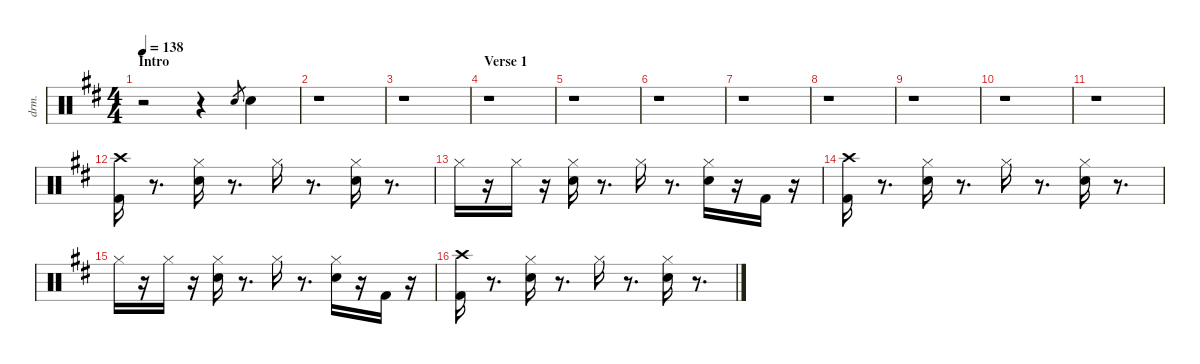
\hideDynamics
\bracketExtendMode groupsimilarinstruments
\otherSystemsTrackNameOrientation horizontal
\track ("Drumkit" "drm.") {instrument percussion}
\staff {score}
\articulation defaults
\ts (4 4)
\section ("" "Intro")
\tempo 138
\clef neutral
\ks d
r.2{dy f} r.4 "Snare (hit) 2"{acc forcenatural}.8{gr} "Snare (hit) 2"{acc forcenatural}.4 |
r.1 |
r.1 |
\section ("" "Verse 1")
r.1 |
r.1 |
r.1 |
r.1 |
r.1 |
r.1 |
r.1 |
r.1 |
("Kick (hit) 2"{acc forcenatural} "Crash high (hit)"{acc #}).16 r.8{d} ("Snare (hit) 2"{acc forcenatural} "Hi-Hat (closed)"{acc #}).16 r.8{d} "Hi-Hat (closed)"{acc #}.16{dy mp} r.8{d} ("Snare (hit) 2"{acc forcenatural} "Hi-Hat (closed)"{acc #}).16{dy f} r.8{d} |
"Hi-Hat (closed)"{acc #}.16{dy p} r.16 "Hi-Hat (closed)"{acc #}.16{dy pp} r.16 ("Snare (hit) 2"{acc forcenatural} "Hi-Hat (closed)"{acc #}).16{dy f} r.8{d} "Hi-Hat (closed)"{acc #}.16{dy pp} r.8{d} ("Snare (hit) 2"{acc forcenatural} "Hi-Hat (closed)"{acc #}).16{dy mp} r.16 "Kick (hit) 2"{acc forcenatural}.16{dy f} r.16 |
("Kick (hit) 2"{acc forcenatural} "Crash high (hit)"{acc #}).16 r.8{d} ("Snare (hit) 2"{acc forcenatural} "Hi-Hat (closed)"{acc #}).16 r.8{d} "Hi-Hat (closed)"{acc #}.16{dy mp} r.8{d} ("Snare (hit) 2"{acc forcenatural} "Hi-Hat (closed)"{acc #}).16{dy f} r.8{d} |
"Hi-Hat (closed)"{acc #}.16{dy mp} r.16 "Hi-Hat (closed)"{acc #}.16{dy pp} r.16 ("Snare (hit) 2"{acc forcenatural} "Hi-Hat (closed)"{acc #}).16{dy f} r.8{d} "Hi-Hat (closed)"{acc #}.16{dy pp} r.8{d} ("Snare (hit) 2"{acc forcenatural} "Hi-Hat (closed)"{acc #}).16{dy mp} r.16 "Kick (hit) 2"{acc forcenatural}.16{dy f} r.16 |
("Kick (hit) 2"{acc forcenatural} "Crash high (hit)"{acc #}).16 r.8{d} ("Snare (hit) 2"{acc forcenatural} "Hi-Hat (closed)"{acc #}).16 r.8{d} "Hi-Hat (closed)"{acc #}.16{dy mp} r.8{d} ("Snare (hit) 2"{acc forcenatural} "Hi-Hat (closed)"{acc #}).16{dy f} r.8{d}
